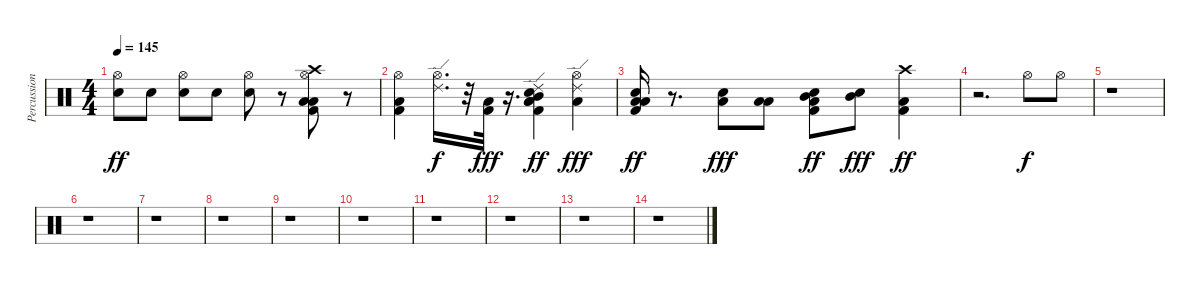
\track ("Percussion" "Percussion") {instrument percussion}
\staff {score}
\articulation defaults
\ts (4 4)
\tempo 145
\clef neutral
\ks c
("Hi-Hat (open)" "Snare (hit) 2").8{dy ff} "Snare (hit) 2".8 ("Hi-Hat (open)" "Snare (hit) 2").8 "Snare (hit) 2".8 ("Hi-Hat (open)" "Snare (hit) 2").8 r.8 ("Crash high (hit)" "Hi-Hat (open)" "Low Tom (hit)" "Low Floor Tom (hit)" "Kick (hit) 2").8 r.8 |
("Hi-Hat (open)" "Low Floor Tom (hit)" "Kick (hit) 2").4 ("Ride (edge) 2" "Hi-Hat (open)").16{d dy f} r.32 ("Low Floor Tom (hit)" "Kick (hit) 2").32{dy fff} r.16{d} ("Ride (edge) 2" "Mid Tom (hit)" "Low Tom (hit)" "Snare (hit) 2" "Low Floor Tom (hit)" "Kick (hit) 2").4{dy ff} ("Ride (edge) 2" "Hi-Hat (open)" "Low Floor Tom (hit)").4{dy fff} |
("Low Tom (hit)" "Snare (hit) 2" "Low Floor Tom (hit)" "Kick (hit) 2").16{dy ff} r.8{d} ("Snare (hit) 2" "Low Tom (hit)").8{dy fff} ("Low Tom (hit)" "Low Floor Tom (hit)").8 ("Mid Tom (hit)" "Snare (hit) 2" "Low Floor Tom (hit)" "Kick (hit) 2").8{dy ff} ("Mid Tom (hit)" "Snare (hit) 2").8{dy fff} ("Crash high (hit)" "Low Floor Tom (hit)" "Kick (hit) 2").4{dy ff} |
r.2{d} "Hi-Hat (open)".8{dy f} "Hi-Hat (open)".8 |
r.1 |
r.1 |
r.1 |
r.1 |
r.1 |
r.1 |
r.1 |
r.1 |
r.1 |
r.1
